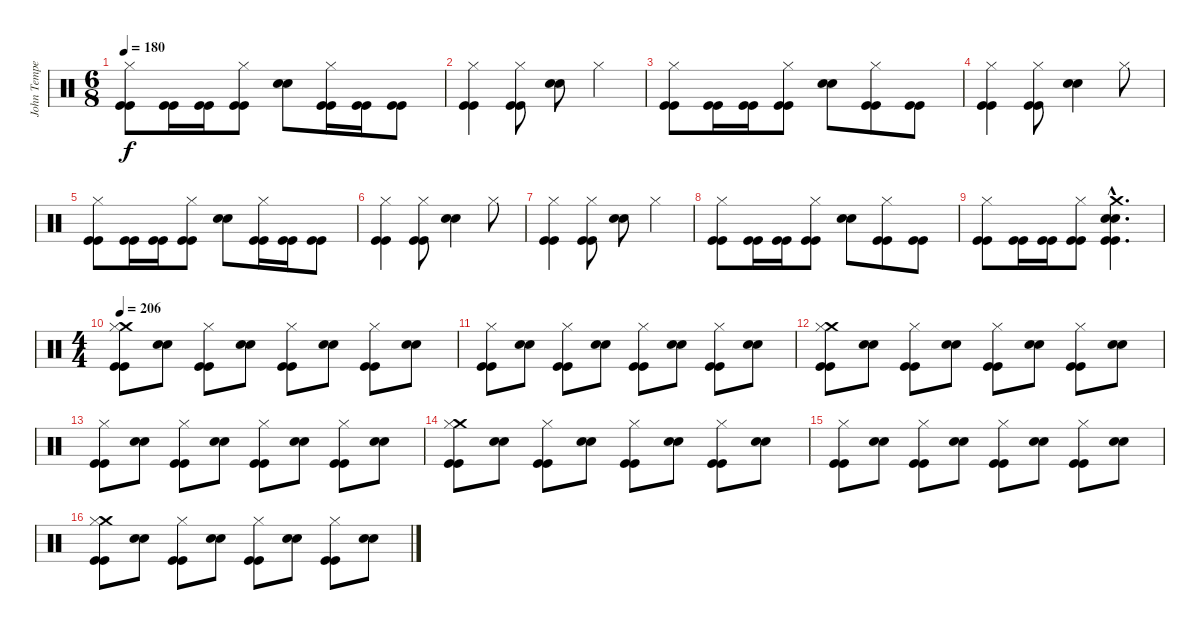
\track ("John Tempesta" "John Tempe") {instrument percussion}
\staff {score}
\articulation defaults
\ts (6 8)
\tempo 180
\clef neutral
\ks c
("Hi-Hat (closed)" "Kick (hit)" "Kick (hit)").8{dy f} ("Kick (hit)" "Kick (hit)").16 ("Kick (hit)" "Kick (hit)").16 ("Hi-Hat (closed)" "Kick (hit)" "Kick (hit)").8 ("Snare (hit) 2" "Snare (hit) 2").8 ("Hi-Hat (closed)" "Kick (hit)" "Kick (hit)").16 ("Kick (hit)" "Kick (hit)").16 ("Kick (hit)" "Kick (hit)").8 |
("Hi-Hat (closed)" "Kick (hit)" "Kick (hit)").4 ("Hi-Hat (closed)" "Kick (hit)" "Kick (hit)").8 ("Snare (hit) 2" "Snare (hit) 2").8 "Hi-Hat (closed)".4 |
("Hi-Hat (closed)" "Kick (hit)" "Kick (hit)").8 ("Kick (hit)" "Kick (hit)").16 ("Kick (hit)" "Kick (hit)").16 ("Hi-Hat (closed)" "Kick (hit)" "Kick (hit)").8 ("Snare (hit) 2" "Snare (hit) 2").8 ("Hi-Hat (closed)" "Kick (hit)" "Kick (hit)").8 ("Kick (hit)" "Kick (hit)").8 |
("Hi-Hat (closed)" "Kick (hit)" "Kick (hit)").4 ("Hi-Hat (closed)" "Kick (hit)" "Kick (hit)").8 ("Snare (hit) 2" "Snare (hit) 2").4 "Hi-Hat (closed)".8 |
("Hi-Hat (closed)" "Kick (hit)" "Kick (hit)").8 ("Kick (hit)" "Kick (hit)").16 ("Kick (hit)" "Kick (hit)").16 ("Hi-Hat (closed)" "Kick (hit)" "Kick (hit)").8 ("Snare (hit) 2" "Snare (hit) 2").8 ("Hi-Hat (closed)" "Kick (hit)" "Kick (hit)").16 ("Kick (hit)" "Kick (hit)").16 ("Kick (hit)" "Kick (hit)").8 |
("Hi-Hat (closed)" "Kick (hit)" "Kick (hit)").4 ("Hi-Hat (closed)" "Kick (hit)" "Kick (hit)").8 ("Snare (hit) 2" "Snare (hit) 2").4 "Hi-Hat (closed)".8 |
("Hi-Hat (closed)" "Kick (hit)" "Kick (hit)").4 ("Hi-Hat (closed)" "Kick (hit)" "Kick (hit)").8 ("Snare (hit) 2" "Snare (hit) 2").8 "Hi-Hat (closed)".4 |
("Hi-Hat (closed)" "Kick (hit)" "Kick (hit)").8 ("Kick (hit)" "Kick (hit)").16 ("Kick (hit)" "Kick (hit)").16 ("Hi-Hat (closed)" "Kick (hit)" "Kick (hit)").8 ("Snare (hit) 2" "Snare (hit) 2").8 ("Hi-Hat (closed)" "Kick (hit)" "Kick (hit)").8 ("Kick (hit)" "Kick (hit)").8 |
("Hi-Hat (closed)" "Kick (hit)" "Kick (hit)").8 ("Kick (hit)" "Kick (hit)").16 ("Kick (hit)" "Kick (hit)").16 ("Hi-Hat (closed)" "Kick (hit)" "Kick (hit)").8 ("Crash medium (hit)"{hac} "Snare (hit) 2"{hac} "Snare (hit) 2"{hac} "Kick (hit)"{hac} "Kick (hit)"{hac}).4{d} |
\ts (4 4)
\tempo 206
("Crash medium (hit)" "Hi-Hat (closed)" "Kick (hit)" "Kick (hit)").8 ("Snare (hit) 2" "Snare (hit) 2").8 ("Hi-Hat (closed)" "Kick (hit)" "Kick (hit)").8 ("Snare (hit) 2" "Snare (hit) 2").8 ("Hi-Hat (closed)" "Kick (hit)" "Kick (hit)").8 ("Snare (hit) 2" "Snare (hit) 2").8 ("Hi-Hat (closed)" "Kick (hit)" "Kick (hit)").8 ("Snare (hit) 2" "Snare (hit) 2").8 |
("Hi-Hat (closed)" "Kick (hit)" "Kick (hit)").8 ("Snare (hit) 2" "Snare (hit) 2").8 ("Hi-Hat (closed)" "Kick (hit)" "Kick (hit)").8 ("Snare (hit) 2" "Snare (hit) 2").8 ("Hi-Hat (closed)" "Kick (hit)" "Kick (hit)").8 ("Snare (hit) 2" "Snare (hit) 2").8 ("Hi-Hat (closed)" "Kick (hit)" "Kick (hit)").8 ("Snare (hit) 2" "Snare (hit) 2").8 |
("Crash medium (hit)" "Hi-Hat (closed)" "Kick (hit)" "Kick (hit)").8 ("Snare (hit) 2" "Snare (hit) 2").8 ("Hi-Hat (closed)" "Kick (hit)" "Kick (hit)").8 ("Snare (hit) 2" "Snare (hit) 2").8 ("Hi-Hat (closed)" "Kick (hit)" "Kick (hit)").8 ("Snare (hit) 2" "Snare (hit) 2").8 ("Hi-Hat (closed)" "Kick (hit)" "Kick (hit)").8 ("Snare (hit) 2" "Snare (hit) 2").8 |
("Hi-Hat (closed)" "Kick (hit)" "Kick (hit)").8 ("Snare (hit) 2" "Snare (hit) 2").8 ("Hi-Hat (closed)" "Kick (hit)" "Kick (hit)").8 ("Snare (hit) 2" "Snare (hit) 2").8 ("Hi-Hat (closed)" "Kick (hit)" "Kick (hit)").8 ("Snare (hit) 2" "Snare (hit) 2").8 ("Hi-Hat (closed)" "Kick (hit)" "Kick (hit)").8 ("Snare (hit) 2" "Snare (hit) 2").8 |
("Crash medium (hit)" "Hi-Hat (closed)" "Kick (hit)" "Kick (hit)").8 ("Snare (hit) 2" "Snare (hit) 2").8 ("Hi-Hat (closed)" "Kick (hit)" "Kick (hit)").8 ("Snare (hit) 2" "Snare (hit) 2").8 ("Hi-Hat (closed)" "Kick (hit)" "Kick (hit)").8 ("Snare (hit) 2" "Snare (hit) 2").8 ("Hi-Hat (closed)" "Kick (hit)" "Kick (hit)").8 ("Snare (hit) 2" "Snare (hit) 2").8 |
("Hi-Hat (closed)" "Kick (hit)" "Kick (hit)").8 ("Snare (hit) 2" "Snare (hit) 2").8 ("Hi-Hat (closed)" "Kick (hit)" "Kick (hit)").8 ("Snare (hit) 2" "Snare (hit) 2").8 ("Hi-Hat (closed)" "Kick (hit)" "Kick (hit)").8 ("Snare (hit) 2" "Snare (hit) 2").8 ("Hi-Hat (closed)" "Kick (hit)" "Kick (hit)").8 ("Snare (hit) 2" "Snare (hit) 2").8 |
("Crash medium (hit)" "Hi-Hat (closed)" "Kick (hit)" "Kick (hit)").8 ("Snare (hit) 2" "Snare (hit) 2").8 ("Hi-Hat (closed)" "Kick (hit)" "Kick (hit)").8 ("Snare (hit) 2" "Snare (hit) 2").8 ("Hi-Hat (closed)" "Kick (hit)" "Kick (hit)").8 ("Snare (hit) 2" "Snare (hit) 2").8 ("Hi-Hat (closed)" "Kick (hit)" "Kick (hit)").8 ("Snare (hit) 2" "Snare (hit) 2").8
